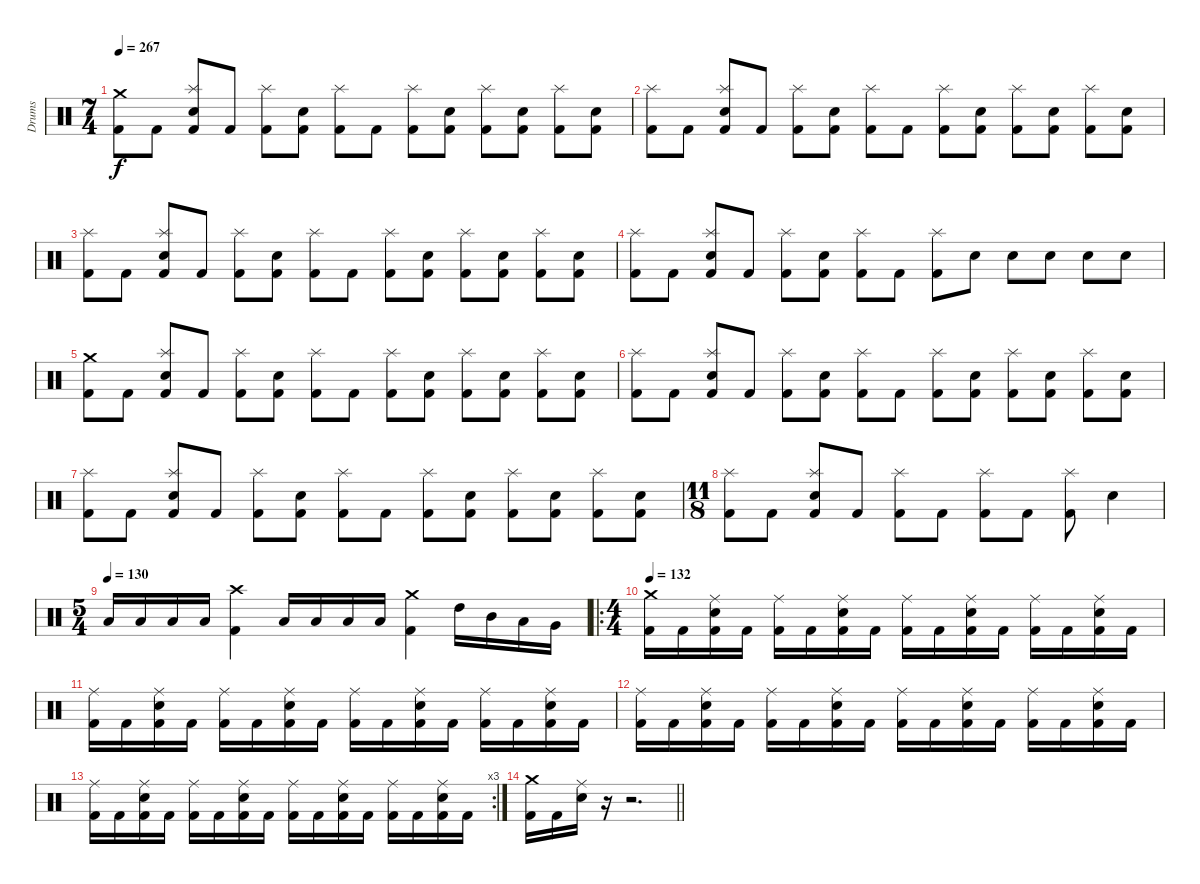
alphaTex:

\track ("Drums" "Drums") {instrument percussion}
\staff {score}
\articulation defaults
\ts (7 4)
\tempo 267
\clef neutral
\ks c
("Crash medium (hit)" "Kick (hit) 2").8{dy f} "Kick (hit) 2".8 ("Splash (hit)" "Snare (hit) 2" "Kick (hit) 2").8 "Kick (hit) 2".8 ("Splash (hit)" "Kick (hit) 2").8 ("Snare (hit) 2" "Kick (hit) 2").8 ("Splash (hit)" "Kick (hit) 2").8 "Kick (hit) 2".8 ("Splash (hit)" "Kick (hit) 2").8 ("Snare (hit) 2" "Kick (hit) 2").8 ("Splash (hit)" "Kick (hit) 2").8 ("Snare (hit) 2" "Kick (hit) 2").8 ("Splash (hit)" "Kick (hit) 2").8 ("Snare (hit) 2" "Kick (hit) 2").8 |
("Splash (hit)" "Kick (hit) 2").8 "Kick (hit) 2".8 ("Splash (hit)" "Snare (hit) 2" "Kick (hit) 2").8 "Kick (hit) 2".8 ("Splash (hit)" "Kick (hit) 2").8 ("Snare (hit) 2" "Kick (hit) 2").8 ("Splash (hit)" "Kick (hit) 2").8 "Kick (hit) 2".8 ("Splash (hit)" "Kick (hit) 2").8 ("Snare (hit) 2" "Kick (hit) 2").8 ("Splash (hit)" "Kick (hit) 2").8 ("Snare (hit) 2" "Kick (hit) 2").8 ("Splash (hit)" "Kick (hit) 2").8 ("Snare (hit) 2" "Kick (hit) 2").8 |
("Splash (hit)" "Kick (hit) 2").8 "Kick (hit) 2".8 ("Splash (hit)" "Snare (hit) 2" "Kick (hit) 2").8 "Kick (hit) 2".8 ("Splash (hit)" "Kick (hit) 2").8 ("Snare (hit) 2" "Kick (hit) 2").8 ("Splash (hit)" "Kick (hit) 2").8 "Kick (hit) 2".8 ("Splash (hit)" "Kick (hit) 2").8 ("Snare (hit) 2" "Kick (hit) 2").8 ("Splash (hit)" "Kick (hit) 2").8 ("Snare (hit) 2" "Kick (hit) 2").8 ("Splash (hit)" "Kick (hit) 2").8 ("Snare (hit) 2" "Kick (hit) 2").8 |
("Splash (hit)" "Kick (hit) 2").8 "Kick (hit) 2".8 ("Splash (hit)" "Snare (hit) 2" "Kick (hit) 2").8 "Kick (hit) 2".8 ("Splash (hit)" "Kick (hit) 2").8 ("Snare (hit) 2" "Kick (hit) 2").8 ("Splash (hit)" "Kick (hit) 2").8 "Kick (hit) 2".8 ("Splash (hit)" "Kick (hit) 2").8 "Snare (hit) 2".8 "Snare (hit) 2".8 "Snare (hit) 2".8 "Snare (hit) 2".8 "Snare (hit) 2".8 |
("Crash medium (hit)" "Kick (hit) 2").8 "Kick (hit) 2".8 ("Splash (hit)" "Snare (hit) 2" "Kick (hit) 2").8 "Kick (hit) 2".8 ("Splash (hit)" "Kick (hit) 2").8 ("Snare (hit) 2" "Kick (hit) 2").8 ("Splash (hit)" "Kick (hit) 2").8 "Kick (hit) 2".8 ("Splash (hit)" "Kick (hit) 2").8 ("Snare (hit) 2" "Kick (hit) 2").8 ("Splash (hit)" "Kick (hit) 2").8 ("Snare (hit) 2" "Kick (hit) 2").8 ("Splash (hit)" "Kick (hit) 2").8 ("Snare (hit) 2" "Kick (hit) 2").8 |
("Splash (hit)" "Kick (hit) 2").8 "Kick (hit) 2".8 ("Splash (hit)" "Snare (hit) 2" "Kick (hit) 2").8 "Kick (hit) 2".8 ("Splash (hit)" "Kick (hit) 2").8 ("Snare (hit) 2" "Kick (hit) 2").8 ("Splash (hit)" "Kick (hit) 2").8 "Kick (hit) 2".8 ("Splash (hit)" "Kick (hit) 2").8 ("Snare (hit) 2" "Kick (hit) 2").8 ("Splash (hit)" "Kick (hit) 2").8 ("Snare (hit) 2" "Kick (hit) 2").8 ("Splash (hit)" "Kick (hit) 2").8 ("Snare (hit) 2" "Kick (hit) 2").8 |
("Splash (hit)" "Kick (hit) 2").8 "Kick (hit) 2".8 ("Splash (hit)" "Snare (hit) 2" "Kick (hit) 2").8 "Kick (hit) 2".8 ("Splash (hit)" "Kick (hit) 2").8 ("Snare (hit) 2" "Kick (hit) 2").8 ("Splash (hit)" "Kick (hit) 2").8 "Kick (hit) 2".8 ("Splash (hit)" "Kick (hit) 2").8 ("Snare (hit) 2" "Kick (hit) 2").8 ("Splash (hit)" "Kick (hit) 2").8 ("Snare (hit) 2" "Kick (hit) 2").8 ("Splash (hit)" "Kick (hit) 2").8 ("Snare (hit) 2" "Kick (hit) 2").8 |
\ts (11 8)
("Splash (hit)" "Kick (hit) 2").8 "Kick (hit) 2".8 ("Splash (hit)" "Snare (hit) 2" "Kick (hit) 2").8 "Kick (hit) 2".8 ("Splash (hit)" "Kick (hit) 2").8 "Kick (hit) 2".8 ("Splash (hit)" "Kick (hit) 2").8 "Kick (hit) 2".8 ("Splash (hit)" "Kick (hit) 2").8 "Snare (hit) 2".4 |
\ts (5 4)
\tempo (130)
"Low Tom (hit)".16 "Low Tom (hit)".16 "Low Tom (hit)".16 "Low Tom (hit)".16 ("Crash high (hit)" "Kick (hit) 2").4 "Low Tom (hit)".16 "Low Tom (hit)".16 "Low Tom (hit)".16 "Low Tom (hit)".16 ("Crash medium (hit)" "Kick (hit) 2").4 "High Tom (hit)".16 "Mid Tom (hit)".16 "Low Tom (hit)".16 "Very Low Tom (hit)".16 |
\ro
\ts (4 4)
\tempo 132
("Crash medium (hit)" "Kick (hit) 2").16 "Kick (hit) 2".16 ("Ride (middle)" "Snare (hit) 2" "Kick (hit) 2").16 "Kick (hit) 2".16 ("Ride (middle)" "Kick (hit) 2").16 "Kick (hit) 2".16 ("Ride (middle)" "Snare (hit) 2" "Kick (hit) 2").16 "Kick (hit) 2".16 ("Ride (middle)" "Kick (hit) 2").16 "Kick (hit) 2".16 ("Ride (middle)" "Snare (hit) 2" "Kick (hit) 2").16 "Kick (hit) 2".16 ("Ride (middle)" "Kick (hit) 2").16 "Kick (hit) 2".16 ("Ride (middle)" "Snare (hit) 2" "Kick (hit) 2").16 "Kick (hit) 2".16 |
("Ride (middle)" "Kick (hit) 2").16 "Kick (hit) 2".16 ("Ride (middle)" "Snare (hit) 2" "Kick (hit) 2").16 "Kick (hit) 2".16 ("Ride (middle)" "Kick (hit) 2").16 "Kick (hit) 2".16 ("Ride (middle)" "Snare (hit) 2" "Kick (hit) 2").16 "Kick (hit) 2".16 ("Ride (middle)" "Kick (hit) 2").16 "Kick (hit) 2".16 ("Ride (middle)" "Snare (hit) 2" "Kick (hit) 2").16 "Kick (hit) 2".16 ("Ride (middle)" "Kick (hit) 2").16 "Kick (hit) 2".16 ("Ride (middle)" "Snare (hit) 2" "Kick (hit) 2").16 "Kick (hit) 2".16 |
("Ride (middle)" "Kick (hit) 2").16 "Kick (hit) 2".16 ("Ride (middle)" "Snare (hit) 2" "Kick (hit) 2").16 "Kick (hit) 2".16 ("Ride (middle)" "Kick (hit) 2").16 "Kick (hit) 2".16 ("Ride (middle)" "Snare (hit) 2" "Kick (hit) 2").16 "Kick (hit) 2".16 ("Ride (middle)" "Kick (hit) 2").16 "Kick (hit) 2".16 ("Ride (middle)" "Snare (hit) 2" "Kick (hit) 2").16 "Kick (hit) 2".16 ("Ride (middle)" "Kick (hit) 2").16 "Kick (hit) 2".16 ("Ride (middle)" "Snare (hit) 2" "Kick (hit) 2").16 "Kick (hit) 2".16 |
\rc 3
("Ride (middle)" "Kick (hit) 2").16 "Kick (hit) 2".16 ("Ride (middle)" "Snare (hit) 2" "Kick (hit) 2").16 "Kick (hit) 2".16 ("Ride (middle)" "Kick (hit) 2").16 "Kick (hit) 2".16 ("Ride (middle)" "Snare (hit) 2" "Kick (hit) 2").16 "Kick (hit) 2".16 ("Ride (middle)" "Kick (hit) 2").16 "Kick (hit) 2".16 ("Ride (middle)" "Snare (hit) 2" "Kick (hit) 2").16 "Kick (hit) 2".16 ("Ride (middle)" "Kick (hit) 2").16 "Kick (hit) 2".16 ("Ride (middle)" "Snare (hit) 2" "Kick (hit) 2").16 "Kick (hit) 2".16 |
\barLineRight lightlight
("Crash medium (hit)" "Kick (hit) 2").16 "Kick (hit) 2".16 ("Ride (middle)" "Snare (hit) 2").16 r.16 r.2{d}
